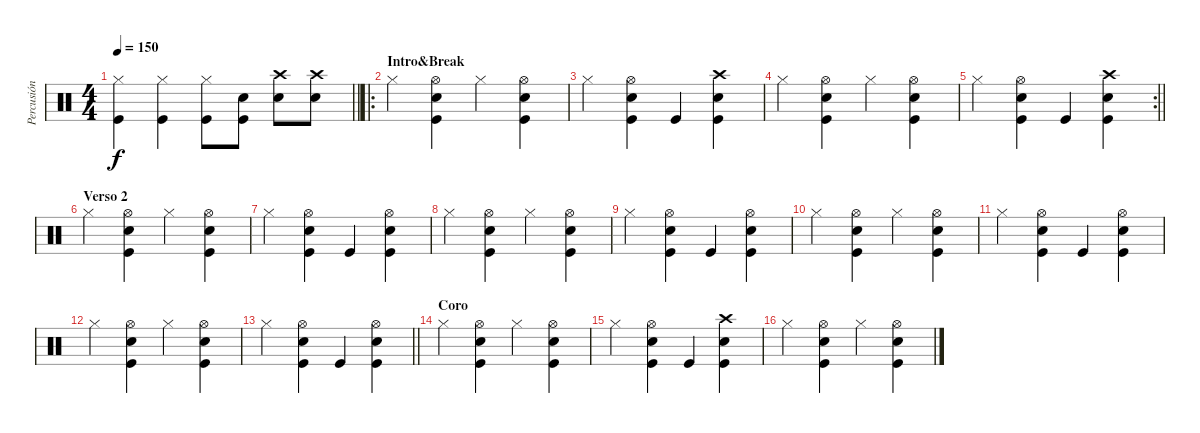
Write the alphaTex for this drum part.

\track ("Percusión" "Percusión") {instrument percussion}
\staff {score}
\articulation defaults
\ts (4 4)
\tempo 150
\clef neutral
\barLineRight lightlight
\ks c
("Hi-Hat (closed)" "Kick (hit)").4{dy f} ("Hi-Hat (closed)" "Kick (hit)").4 ("Hi-Hat (closed)" "Kick (hit)").8 ("Kick (hit)" "Snare (hit) 2").8 ("Snare (hit) 2" "Crash high (hit)").8 ("Snare (hit) 2" "Crash high (hit)").8 |
\ro
\section ("" "Intro&Break")
"Hi-Hat (closed)".4 ("Kick (hit)" "Snare (hit) 2" "Hi-Hat (open)").4 "Hi-Hat (closed)".4 ("Kick (hit)" "Snare (hit) 2" "Hi-Hat (open)").4 |
"Hi-Hat (closed)".4 ("Kick (hit)" "Snare (hit) 2" "Hi-Hat (open)").4 "Kick (hit)".4 ("Kick (hit)" "Snare (hit) 2" "Crash high (hit)").4 |
"Hi-Hat (closed)".4 ("Kick (hit)" "Snare (hit) 2" "Hi-Hat (open)").4 "Hi-Hat (closed)".4 ("Kick (hit)" "Snare (hit) 2" "Hi-Hat (open)").4 |
\rc 2
\barLineRight lightlight "Hi-Hat (closed)".4
("Kick (hit)" "Snare (hit) 2" "Hi-Hat (open)").4 "Kick (hit)".4 ("Kick (hit)" "Snare (hit) 2" "Crash high (hit)").4 |
\section ("" "Verso 2")
"Hi-Hat (closed)".4 ("Kick (hit)" "Snare (hit) 2" "Hi-Hat (open)").4 "Hi-Hat (closed)".4 ("Kick (hit)" "Snare (hit) 2" "Hi-Hat (open)").4 |
"Hi-Hat (closed)".4 ("Kick (hit)" "Snare (hit) 2" "Hi-Hat (open)").4 "Kick (hit)".4 ("Kick (hit)" "Snare (hit) 2" "Hi-Hat (open)").4 |
"Hi-Hat (closed)".4 ("Kick (hit)" "Snare (hit) 2" "Hi-Hat (open)").4 "Hi-Hat (closed)".4 ("Kick (hit)" "Snare (hit) 2" "Hi-Hat (open)").4 |
"Hi-Hat (closed)".4 ("Kick (hit)" "Snare (hit) 2" "Hi-Hat (open)").4 "Kick (hit)".4 ("Kick (hit)" "Snare (hit) 2" "Hi-Hat (open)").4 |
"Hi-Hat (closed)".4 ("Kick (hit)" "Snare (hit) 2" "Hi-Hat (open)").4 "Hi-Hat (closed)".4 ("Kick (hit)" "Snare (hit) 2" "Hi-Hat (open)").4 |
"Hi-Hat (closed)".4 ("Kick (hit)" "Snare (hit) 2" "Hi-Hat (open)").4 "Kick (hit)".4 ("Kick (hit)" "Snare (hit) 2" "Hi-Hat (open)").4 |
"Hi-Hat (closed)".4 ("Kick (hit)" "Snare (hit) 2" "Hi-Hat (open)").4 "Hi-Hat (closed)".4 ("Kick (hit)" "Snare (hit) 2" "Hi-Hat (open)").4 |
\barLineRight lightlight "Hi-Hat (closed)".4
("Kick (hit)" "Snare (hit) 2" "Hi-Hat (open)").4 "Kick (hit)".4 ("Kick (hit)" "Snare (hit) 2" "Hi-Hat (open)").4 |
\section ("" "Coro")
"Hi-Hat (closed)".4 ("Kick (hit)" "Snare (hit) 2" "Hi-Hat (open)").4 "Hi-Hat (closed)".4 ("Kick (hit)" "Snare (hit) 2" "Hi-Hat (open)").4 |
"Hi-Hat (closed)".4 ("Kick (hit)" "Snare (hit) 2" "Hi-Hat (open)").4 "Kick (hit)".4 ("Kick (hit)" "Snare (hit) 2" "Crash high (hit)").4 |
"Hi-Hat (closed)".4 ("Kick (hit)" "Snare (hit) 2" "Hi-Hat (open)").4 "Hi-Hat (closed)".4 ("Kick (hit)" "Snare (hit) 2" "Hi-Hat (open)").4
